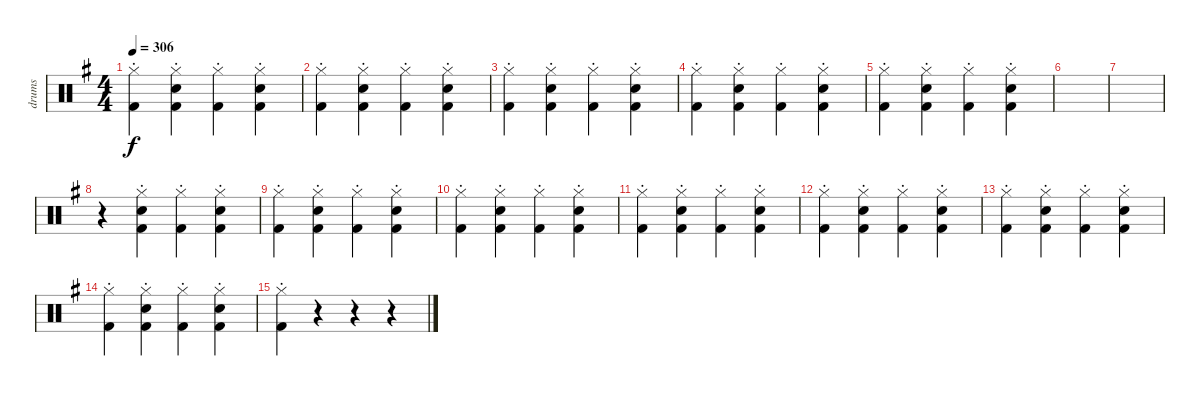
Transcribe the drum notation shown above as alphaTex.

\track ("drums" "drums") {instrument percussion}
\staff {score}
\articulation defaults
\ts (4 4)
\tempo 306
\clef neutral
\ks g
("Hi-Hat (closed)"{st} "Kick (hit) 2").4{dy f} ("Hi-Hat (closed)"{st} "Electric Snare (hit)" "Kick (hit) 2").4 ("Hi-Hat (closed)"{st} "Kick (hit) 2").4 ("Hi-Hat (closed)"{st} "Electric Snare (hit)" "Kick (hit) 2").4 |
("Hi-Hat (closed)"{st} "Kick (hit) 2").4 ("Hi-Hat (closed)"{st} "Electric Snare (hit)" "Kick (hit) 2").4 ("Hi-Hat (closed)"{st} "Kick (hit) 2").4 ("Hi-Hat (closed)"{st} "Electric Snare (hit)" "Kick (hit) 2").4 |
("Hi-Hat (closed)"{st} "Kick (hit) 2").4 ("Hi-Hat (closed)"{st} "Electric Snare (hit)" "Kick (hit) 2").4 ("Hi-Hat (closed)"{st} "Kick (hit) 2").4 ("Hi-Hat (closed)"{st} "Electric Snare (hit)" "Kick (hit) 2").4 |
("Hi-Hat (closed)"{st} "Kick (hit) 2").4 ("Hi-Hat (closed)"{st} "Electric Snare (hit)" "Kick (hit) 2").4 ("Hi-Hat (closed)"{st} "Kick (hit) 2").4 ("Hi-Hat (closed)"{st} "Electric Snare (hit)" "Kick (hit) 2").4 |
("Hi-Hat (closed)"{st} "Kick (hit) 2").4 ("Hi-Hat (closed)"{st} "Electric Snare (hit)" "Kick (hit) 2").4 ("Hi-Hat (closed)"{st} "Kick (hit) 2").4 ("Hi-Hat (closed)"{st} "Electric Snare (hit)" "Kick (hit) 2").4 |
|
|
r.4 ("Hi-Hat (closed)"{st} "Electric Snare (hit)" "Kick (hit) 2").4 ("Hi-Hat (closed)"{st} "Kick (hit) 2").4 ("Hi-Hat (closed)"{st} "Electric Snare (hit)" "Kick (hit) 2").4 |
("Hi-Hat (closed)"{st} "Kick (hit) 2").4 ("Hi-Hat (closed)"{st} "Electric Snare (hit)" "Kick (hit) 2").4 ("Hi-Hat (closed)"{st} "Kick (hit) 2").4 ("Hi-Hat (closed)"{st} "Electric Snare (hit)" "Kick (hit) 2").4 |
("Hi-Hat (closed)"{st} "Kick (hit) 2").4 ("Hi-Hat (closed)"{st} "Electric Snare (hit)" "Kick (hit) 2").4 ("Hi-Hat (closed)"{st} "Kick (hit) 2").4 ("Hi-Hat (closed)"{st} "Electric Snare (hit)" "Kick (hit) 2").4 |
("Hi-Hat (closed)"{st} "Kick (hit) 2").4 ("Hi-Hat (closed)"{st} "Electric Snare (hit)" "Kick (hit) 2").4 ("Hi-Hat (closed)"{st} "Kick (hit) 2").4 ("Hi-Hat (closed)"{st} "Electric Snare (hit)" "Kick (hit) 2").4 |
("Hi-Hat (closed)"{st} "Kick (hit) 2").4 ("Hi-Hat (closed)"{st} "Electric Snare (hit)" "Kick (hit) 2").4 ("Hi-Hat (closed)"{st} "Kick (hit) 2").4 ("Hi-Hat (closed)"{st} "Electric Snare (hit)" "Kick (hit) 2").4 |
("Hi-Hat (closed)"{st} "Kick (hit) 2").4 ("Hi-Hat (closed)"{st} "Electric Snare (hit)" "Kick (hit) 2").4 ("Hi-Hat (closed)"{st} "Kick (hit) 2").4 ("Hi-Hat (closed)"{st} "Electric Snare (hit)" "Kick (hit) 2").4 |
("Hi-Hat (closed)"{st} "Kick (hit) 2").4 ("Hi-Hat (closed)"{st} "Electric Snare (hit)" "Kick (hit) 2").4 ("Hi-Hat (closed)"{st} "Kick (hit) 2").4 ("Hi-Hat (closed)"{st} "Electric Snare (hit)" "Kick (hit) 2").4 |
("Hi-Hat (closed)"{st} "Kick (hit) 2").4 r.4 r.4 r.4
